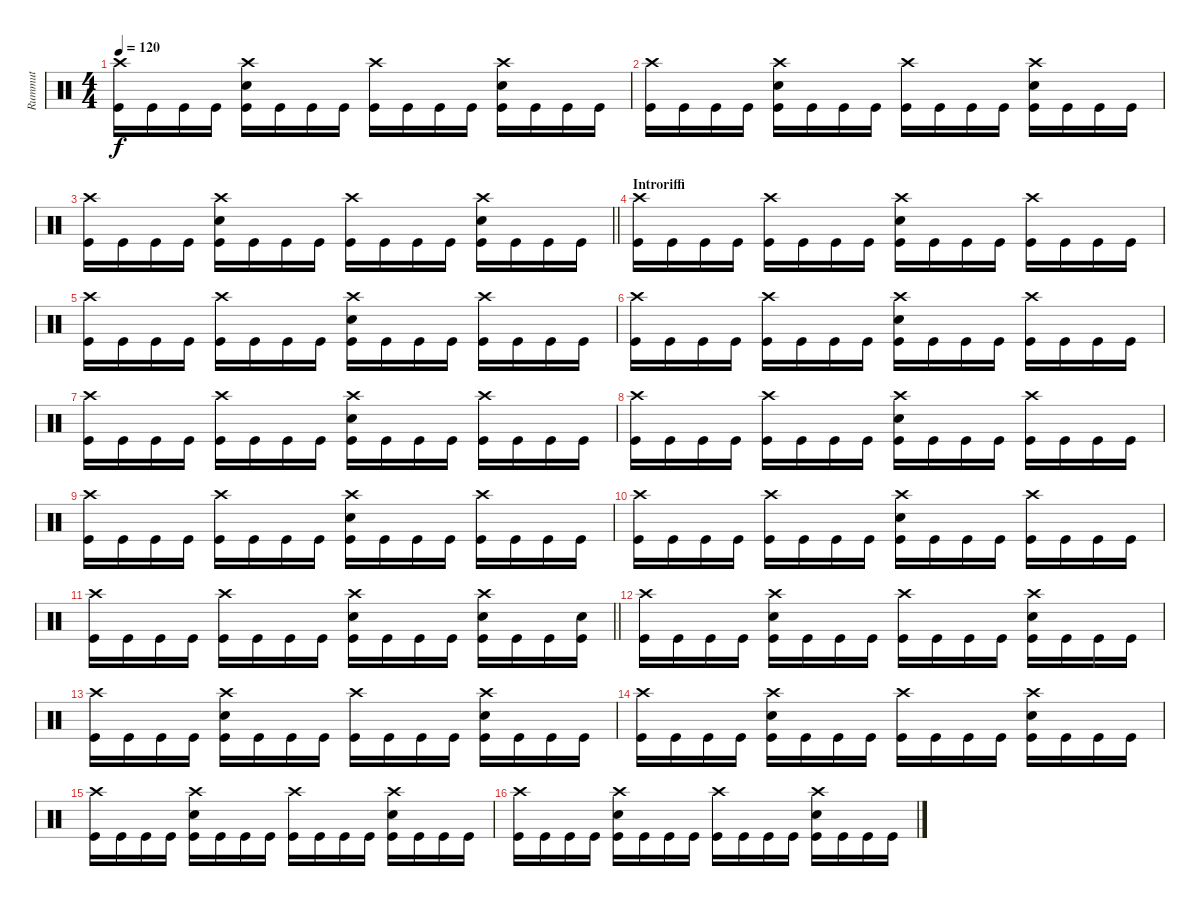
\track ("Rummut" "Rummut") {instrument percussion}
\staff {score}
\articulation defaults
\ts (4 4)
\tempo 120
\clef neutral
\ks c
("Crash high (hit)" "Kick (hit)").16{dy f} "Kick (hit)".16 "Kick (hit)".16 "Kick (hit)".16 ("Crash high (hit)" "Snare (hit) 2" "Kick (hit)").16 "Kick (hit)".16 "Kick (hit)".16 "Kick (hit)".16 ("Crash high (hit)" "Kick (hit)").16 "Kick (hit)".16 "Kick (hit)".16 "Kick (hit)".16 ("Crash high (hit)" "Snare (hit) 2" "Kick (hit)").16 "Kick (hit)".16 "Kick (hit)".16 "Kick (hit)".16 |
("Crash high (hit)" "Kick (hit)").16 "Kick (hit)".16 "Kick (hit)".16 "Kick (hit)".16 ("Crash high (hit)" "Snare (hit) 2" "Kick (hit)").16 "Kick (hit)".16 "Kick (hit)".16 "Kick (hit)".16 ("Crash high (hit)" "Kick (hit)").16 "Kick (hit)".16 "Kick (hit)".16 "Kick (hit)".16 ("Crash high (hit)" "Snare (hit) 2" "Kick (hit)").16 "Kick (hit)".16 "Kick (hit)".16 "Kick (hit)".16 |
\barLineRight lightlight
("Crash high (hit)" "Kick (hit)").16 "Kick (hit)".16 "Kick (hit)".16 "Kick (hit)".16 ("Crash high (hit)" "Snare (hit) 2" "Kick (hit)").16 "Kick (hit)".16 "Kick (hit)".16 "Kick (hit)".16 ("Crash high (hit)" "Kick (hit)").16 "Kick (hit)".16 "Kick (hit)".16 "Kick (hit)".16 ("Crash high (hit)" "Snare (hit) 2" "Kick (hit)").16 "Kick (hit)".16 "Kick (hit)".16 "Kick (hit)".16 |
\section ("" "Introriffi")
("Crash high (hit)" "Kick (hit)").16 "Kick (hit)".16 "Kick (hit)".16 "Kick (hit)".16 ("Crash high (hit)" "Kick (hit)").16 "Kick (hit)".16 "Kick (hit)".16 "Kick (hit)".16 ("Crash high (hit)" "Snare (hit) 2" "Kick (hit)").16 "Kick (hit)".16 "Kick (hit)".16 "Kick (hit)".16 ("Crash high (hit)" "Kick (hit)").16 "Kick (hit)".16 "Kick (hit)".16 "Kick (hit)".16 |
("Crash high (hit)" "Kick (hit)").16 "Kick (hit)".16 "Kick (hit)".16 "Kick (hit)".16 ("Crash high (hit)" "Kick (hit)").16 "Kick (hit)".16 "Kick (hit)".16 "Kick (hit)".16 ("Crash high (hit)" "Snare (hit) 2" "Kick (hit)").16 "Kick (hit)".16 "Kick (hit)".16 "Kick (hit)".16 ("Crash high (hit)" "Kick (hit)").16 "Kick (hit)".16 "Kick (hit)".16 "Kick (hit)".16 |
("Crash high (hit)" "Kick (hit)").16 "Kick (hit)".16 "Kick (hit)".16 "Kick (hit)".16 ("Crash high (hit)" "Kick (hit)").16 "Kick (hit)".16 "Kick (hit)".16 "Kick (hit)".16 ("Crash high (hit)" "Snare (hit) 2" "Kick (hit)").16 "Kick (hit)".16 "Kick (hit)".16 "Kick (hit)".16 ("Crash high (hit)" "Kick (hit)").16 "Kick (hit)".16 "Kick (hit)".16 "Kick (hit)".16 |
("Crash high (hit)" "Kick (hit)").16 "Kick (hit)".16 "Kick (hit)".16 "Kick (hit)".16 ("Crash high (hit)" "Kick (hit)").16 "Kick (hit)".16 "Kick (hit)".16 "Kick (hit)".16 ("Crash high (hit)" "Snare (hit) 2" "Kick (hit)").16 "Kick (hit)".16 "Kick (hit)".16 "Kick (hit)".16 ("Crash high (hit)" "Kick (hit)").16 "Kick (hit)".16 "Kick (hit)".16 "Kick (hit)".16 |
("Crash high (hit)" "Kick (hit)").16 "Kick (hit)".16 "Kick (hit)".16 "Kick (hit)".16 ("Crash high (hit)" "Kick (hit)").16 "Kick (hit)".16 "Kick (hit)".16 "Kick (hit)".16 ("Crash high (hit)" "Snare (hit) 2" "Kick (hit)").16 "Kick (hit)".16 "Kick (hit)".16 "Kick (hit)".16 ("Crash high (hit)" "Kick (hit)").16 "Kick (hit)".16 "Kick (hit)".16 "Kick (hit)".16 |
("Crash high (hit)" "Kick (hit)").16 "Kick (hit)".16 "Kick (hit)".16 "Kick (hit)".16 ("Crash high (hit)" "Kick (hit)").16 "Kick (hit)".16 "Kick (hit)".16 "Kick (hit)".16 ("Crash high (hit)" "Snare (hit) 2" "Kick (hit)").16 "Kick (hit)".16 "Kick (hit)".16 "Kick (hit)".16 ("Crash high (hit)" "Kick (hit)").16 "Kick (hit)".16 "Kick (hit)".16 "Kick (hit)".16 |
("Crash high (hit)" "Kick (hit)").16 "Kick (hit)".16 "Kick (hit)".16 "Kick (hit)".16 ("Crash high (hit)" "Kick (hit)").16 "Kick (hit)".16 "Kick (hit)".16 "Kick (hit)".16 ("Crash high (hit)" "Snare (hit) 2" "Kick (hit)").16 "Kick (hit)".16 "Kick (hit)".16 "Kick (hit)".16 ("Crash high (hit)" "Kick (hit)").16 "Kick (hit)".16 "Kick (hit)".16 "Kick (hit)".16 |
\barLineRight lightlight
("Crash high (hit)" "Kick (hit)").16 "Kick (hit)".16 "Kick (hit)".16 "Kick (hit)".16 ("Crash high (hit)" "Kick (hit)").16 "Kick (hit)".16 "Kick (hit)".16 "Kick (hit)".16 ("Crash high (hit)" "Snare (hit) 2" "Kick (hit)").16 "Kick (hit)".16 "Kick (hit)".16 "Kick (hit)".16 ("Crash high (hit)" "Snare (hit) 2" "Kick (hit)").16 "Kick (hit)".16 "Kick (hit)".16 ("Snare (hit) 2" "Kick (hit)").16 |
("Crash high (hit)" "Kick (hit)").16 "Kick (hit)".16 "Kick (hit)".16 "Kick (hit)".16 ("Crash high (hit)" "Snare (hit) 2" "Kick (hit)").16 "Kick (hit)".16 "Kick (hit)".16 "Kick (hit)".16 ("Crash high (hit)" "Kick (hit)").16 "Kick (hit)".16 "Kick (hit)".16 "Kick (hit)".16 ("Crash high (hit)" "Snare (hit) 2" "Kick (hit)").16 "Kick (hit)".16 "Kick (hit)".16 "Kick (hit)".16 |
("Crash high (hit)" "Kick (hit)").16 "Kick (hit)".16 "Kick (hit)".16 "Kick (hit)".16 ("Crash high (hit)" "Snare (hit) 2" "Kick (hit)").16 "Kick (hit)".16 "Kick (hit)".16 "Kick (hit)".16 ("Crash high (hit)" "Kick (hit)").16 "Kick (hit)".16 "Kick (hit)".16 "Kick (hit)".16 ("Crash high (hit)" "Snare (hit) 2" "Kick (hit)").16 "Kick (hit)".16 "Kick (hit)".16 "Kick (hit)".16 |
("Crash high (hit)" "Kick (hit)").16 "Kick (hit)".16 "Kick (hit)".16 "Kick (hit)".16 ("Crash high (hit)" "Snare (hit) 2" "Kick (hit)").16 "Kick (hit)".16 "Kick (hit)".16 "Kick (hit)".16 ("Crash high (hit)" "Kick (hit)").16 "Kick (hit)".16 "Kick (hit)".16 "Kick (hit)".16 ("Crash high (hit)" "Snare (hit) 2" "Kick (hit)").16 "Kick (hit)".16 "Kick (hit)".16 "Kick (hit)".16 |
("Crash high (hit)" "Kick (hit)").16 "Kick (hit)".16 "Kick (hit)".16 "Kick (hit)".16 ("Crash high (hit)" "Snare (hit) 2" "Kick (hit)").16 "Kick (hit)".16 "Kick (hit)".16 "Kick (hit)".16 ("Crash high (hit)" "Kick (hit)").16 "Kick (hit)".16 "Kick (hit)".16 "Kick (hit)".16 ("Crash high (hit)" "Snare (hit) 2" "Kick (hit)").16 "Kick (hit)".16 "Kick (hit)".16 "Kick (hit)".16 |
("Crash high (hit)" "Kick (hit)").16 "Kick (hit)".16 "Kick (hit)".16 "Kick (hit)".16 ("Crash high (hit)" "Snare (hit) 2" "Kick (hit)").16 "Kick (hit)".16 "Kick (hit)".16 "Kick (hit)".16 ("Crash high (hit)" "Kick (hit)").16 "Kick (hit)".16 "Kick (hit)".16 "Kick (hit)".16 ("Crash high (hit)" "Snare (hit) 2" "Kick (hit)").16 "Kick (hit)".16 "Kick (hit)".16 "Kick (hit)".16
